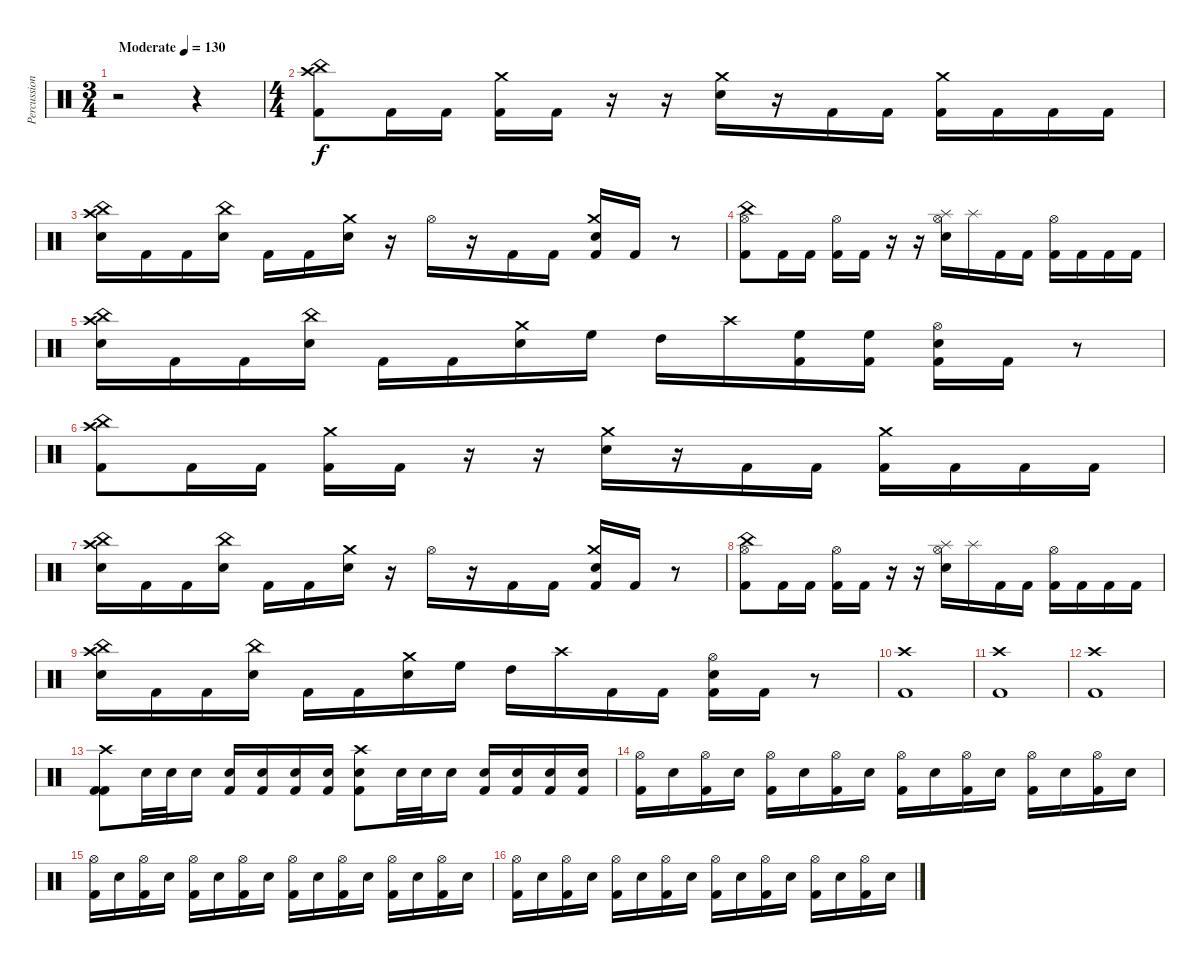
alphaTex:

\track ("Percussion" "Percussion") {instrument percussion}
\staff {score}
\articulation defaults
\ts (3 4)
\tempo (130 "Moderate")
\clef neutral
\ks c
r.2{dy f} r.4 |
\ts (4 4)
("Crash high (hit)" "China (hit)" "Kick (hit) 2").8 "Kick (hit) 2".16 "Kick (hit) 2".16 ("Crash medium (hit)" "Kick (hit) 2").16 "Kick (hit) 2".16 r.16 r.16 ("Crash medium (hit)" "Snare (hit) 2").16 r.16 "Kick (hit) 2".16 "Kick (hit) 2".16 ("Crash medium (hit)" "Kick (hit) 2").16 "Kick (hit) 2".16 "Kick (hit) 2".16 "Kick (hit) 2".16 |
("China (hit)" "Crash high (hit)" "Snare (hit) 2").16 "Kick (hit) 2".16 "Kick (hit) 2".16 ("China (hit)" "Snare (hit) 2").16 "Kick (hit) 2".16 "Kick (hit) 2".16 ("Crash medium (hit)" "Snare (hit) 2").16 r.16 "Hi-Hat (open)".16 r.16 "Kick (hit) 2".16 "Kick (hit) 2".16 ("Crash medium (hit)" "Snare (hit) 2" "Kick (hit) 2").16 "Kick (hit) 2".16 r.8 |
("Hi-Hat (open)" "China (hit)" "Kick (hit) 2").8 "Kick (hit) 2".16 "Kick (hit) 2".16 ("Hi-Hat (open)" "Kick (hit) 2").16 "Kick (hit) 2".16 r.16 r.16 ("Hi-Hat (open)" "Splash (hit)" "Snare (hit) 2").16 "Splash (hit)".16 "Kick (hit) 2".16 "Kick (hit) 2".16 ("Hi-Hat (open)" "Kick (hit) 2").16 "Kick (hit) 2".16 "Kick (hit) 2".16 "Kick (hit) 2".16 |
("China (hit)" "Crash high (hit)" "Snare (hit) 2").16 "Kick (hit) 2".16 "Kick (hit) 2".16 ("China (hit)" "Snare (hit) 2").16 "Kick (hit) 2".16 "Kick (hit) 2".16 ("Crash medium (hit)" "Snare (hit) 2").16 "High Floor Tom (hit)".16 "High Tom (hit)".16 "Crash high (hit)".16 ("High Floor Tom (hit)" "Kick (hit) 2").16 ("High Floor Tom (hit)" "Kick (hit) 2").16 ("Hi-Hat (open)" "Snare (hit) 2" "Kick (hit) 2").16 "Kick (hit) 2".16 r.8 |
("Crash high (hit)" "China (hit)" "Kick (hit) 2").8 "Kick (hit) 2".16 "Kick (hit) 2".16 ("Crash medium (hit)" "Kick (hit) 2").16 "Kick (hit) 2".16 r.16 r.16 ("Crash medium (hit)" "Snare (hit) 2").16 r.16 "Kick (hit) 2".16 "Kick (hit) 2".16 ("Crash medium (hit)" "Kick (hit) 2").16 "Kick (hit) 2".16 "Kick (hit) 2".16 "Kick (hit) 2".16 |
("China (hit)" "Crash high (hit)" "Snare (hit) 2").16 "Kick (hit) 2".16 "Kick (hit) 2".16 ("China (hit)" "Snare (hit) 2").16 "Kick (hit) 2".16 "Kick (hit) 2".16 ("Crash medium (hit)" "Snare (hit) 2").16 r.16 "Hi-Hat (open)".16 r.16 "Kick (hit) 2".16 "Kick (hit) 2".16 ("Crash medium (hit)" "Snare (hit) 2" "Kick (hit) 2").16 "Kick (hit) 2".16 r.8 |
("Hi-Hat (open)" "China (hit)" "Kick (hit) 2").8 "Kick (hit) 2".16 "Kick (hit) 2".16 ("Hi-Hat (open)" "Kick (hit) 2").16 "Kick (hit) 2".16 r.16 r.16 ("Hi-Hat (open)" "Splash (hit)" "Snare (hit) 2").16 "Splash (hit)".16 "Kick (hit) 2".16 "Kick (hit) 2".16 ("Hi-Hat (open)" "Kick (hit) 2").16 "Kick (hit) 2".16 "Kick (hit) 2".16 "Kick (hit) 2".16 |
("China (hit)" "Crash high (hit)" "Snare (hit) 2").16 "Kick (hit) 2".16 "Kick (hit) 2".16 ("China (hit)" "Snare (hit) 2").16 "Kick (hit) 2".16 "Kick (hit) 2".16 ("Crash medium (hit)" "Snare (hit) 2").16 "High Floor Tom (hit)".16 "High Tom (hit)".16 "Crash high (hit)".16 "Kick (hit) 2".16 "Kick (hit) 2".16 ("Hi-Hat (open)" "Snare (hit) 2" "Kick (hit) 2").16 "Kick (hit) 2".16 r.8 |
("Crash high (hit)" "Kick (hit) 2").1 |
("Crash high (hit)" "Kick (hit) 2").1 |
("Crash high (hit)" "Kick (hit) 2").1 |
("Crash high (hit)" "Kick (hit) 2" "Kick (hit) 2").8 "Snare (hit) 2".32 "Snare (hit) 2".32 "Snare (hit) 2".16 ("Kick (hit) 2" "Snare (hit) 2").16 ("Kick (hit) 2" "Snare (hit) 2").16 ("Kick (hit) 2" "Snare (hit) 2").16 ("Kick (hit) 2" "Snare (hit) 2").16 ("Crash high (hit)" "Kick (hit) 2" "Snare (hit) 2").8 "Snare (hit) 2".32 "Snare (hit) 2".32 "Snare (hit) 2".16 ("Kick (hit) 2" "Snare (hit) 2").16 ("Kick (hit) 2" "Snare (hit) 2").16 ("Kick (hit) 2" "Snare (hit) 2").16 ("Kick (hit) 2" "Snare (hit) 2").16 |
("Hi-Hat (open)" "Kick (hit) 2").16 "Snare (hit) 2".16 ("Hi-Hat (open)" "Kick (hit) 2").16 "Snare (hit) 2".16 ("Hi-Hat (open)" "Kick (hit) 2").16 "Snare (hit) 2".16 ("Hi-Hat (open)" "Kick (hit) 2").16 "Snare (hit) 2".16 ("Hi-Hat (open)" "Kick (hit) 2").16 "Snare (hit) 2".16 ("Hi-Hat (open)" "Kick (hit) 2").16 "Snare (hit) 2".16 ("Hi-Hat (open)" "Kick (hit) 2").16 "Snare (hit) 2".16 ("Hi-Hat (open)" "Kick (hit) 2").16 "Snare (hit) 2".16 |
("Hi-Hat (open)" "Kick (hit) 2").16 "Snare (hit) 2".16 ("Hi-Hat (open)" "Kick (hit) 2").16 "Snare (hit) 2".16 ("Hi-Hat (open)" "Kick (hit) 2").16 "Snare (hit) 2".16 ("Hi-Hat (open)" "Kick (hit) 2").16 "Snare (hit) 2".16 ("Hi-Hat (open)" "Kick (hit) 2").16 "Snare (hit) 2".16 ("Hi-Hat (open)" "Kick (hit) 2").16 "Snare (hit) 2".16 ("Hi-Hat (open)" "Kick (hit) 2").16 "Snare (hit) 2".16 ("Hi-Hat (open)" "Kick (hit) 2").16 "Snare (hit) 2".16 |
("Hi-Hat (open)" "Kick (hit) 2").16 "Snare (hit) 2".16 ("Hi-Hat (open)" "Kick (hit) 2").16 "Snare (hit) 2".16 ("Hi-Hat (open)" "Kick (hit) 2").16 "Snare (hit) 2".16 ("Hi-Hat (open)" "Kick (hit) 2").16 "Snare (hit) 2".16 ("Hi-Hat (open)" "Kick (hit) 2").16 "Snare (hit) 2".16 ("Hi-Hat (open)" "Kick (hit) 2").16 "Snare (hit) 2".16 ("Hi-Hat (open)" "Kick (hit) 2").16 "Snare (hit) 2".16 ("Hi-Hat (open)" "Kick (hit) 2").16 "Snare (hit) 2".16
